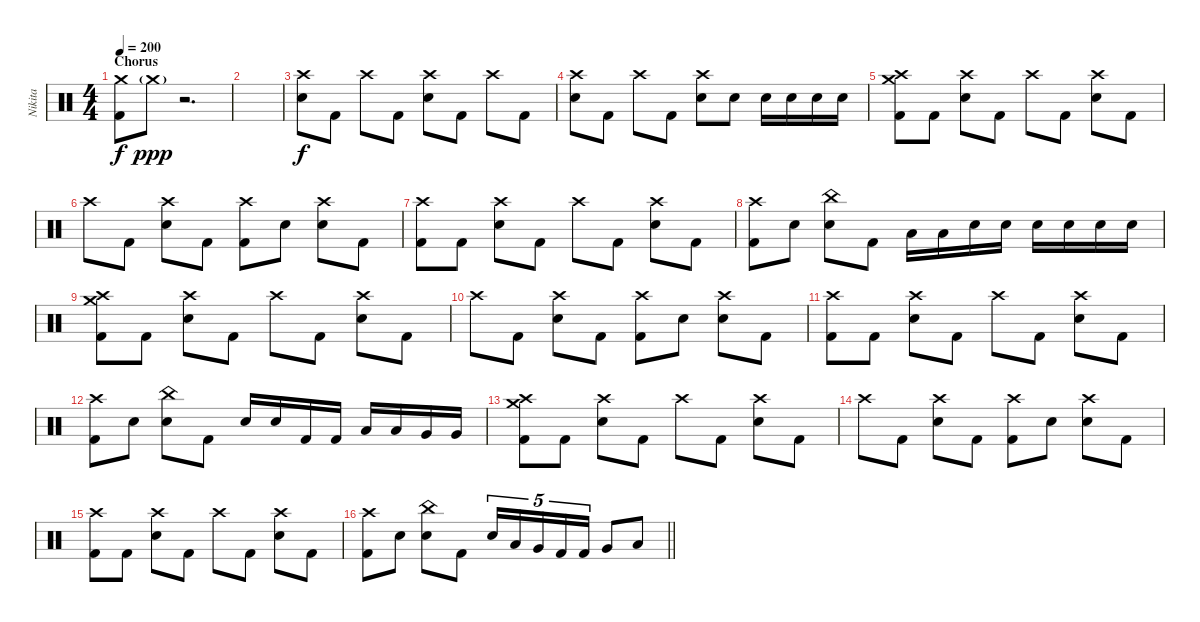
\track ("Nikita" "Nikita") {instrument percussion}
\staff {score}
\articulation defaults
\ts (4 4)
\section ("" "Chorus")
\tempo 200
\clef neutral
\ks c
("Crash medium (hit)" "Kick (hit) 2").8{dy f} "Crash medium (hit)"{g}.8{dy ppp} r.2{d} |
|
("Crash high (hit)" "Electric Snare (hit)").8{dy f} "Kick (hit) 2".8 "Crash high (hit)".8 "Kick (hit) 2".8 ("Crash high (hit)" "Electric Snare (hit)").8 "Kick (hit) 2".8 "Crash high (hit)".8 "Kick (hit) 2".8 |
("Crash high (hit)" "Electric Snare (hit)").8 "Kick (hit) 2".8 "Crash high (hit)".8 "Kick (hit) 2".8 ("Crash high (hit)" "Electric Snare (hit)").8 "Electric Snare (hit)".8 "Electric Snare (hit)".16 "Electric Snare (hit)".16 "Electric Snare (hit)".16 "Electric Snare (hit)".16 |
("Crash high (hit)" "Crash medium (hit)" "Kick (hit) 2").8 "Kick (hit) 2".8 ("Crash high (hit)" "Electric Snare (hit)").8 "Kick (hit) 2".8 "Crash high (hit)".8 "Kick (hit) 2".8 ("Crash high (hit)" "Electric Snare (hit)").8 "Kick (hit) 2".8 |
"Crash high (hit)".8 "Kick (hit) 2".8 ("Crash high (hit)" "Electric Snare (hit)").8 "Kick (hit) 2".8 ("Crash high (hit)" "Kick (hit) 2").8 "Electric Snare (hit)".8 ("Crash high (hit)" "Electric Snare (hit)").8 "Kick (hit) 2".8 |
("Crash high (hit)" "Kick (hit) 2").8 "Kick (hit) 2".8 ("Crash high (hit)" "Electric Snare (hit)").8 "Kick (hit) 2".8 "Crash high (hit)".8 "Kick (hit) 2".8 ("Crash high (hit)" "Electric Snare (hit)").8 "Kick (hit) 2".8 |
("Crash high (hit)" "Kick (hit) 2").8 "Electric Snare (hit)".8 ("China (hit)" "Electric Snare (hit)").8 "Kick (hit) 2".8 "Low Tom (hit)".16 "Low Tom (hit)".16 "Electric Snare (hit)".16 "Electric Snare (hit)".16 "Electric Snare (hit)".16 "Electric Snare (hit)".16 "Electric Snare (hit)".16 "Electric Snare (hit)".16 |
("Crash high (hit)" "Crash medium (hit)" "Kick (hit) 2").8 "Kick (hit) 2".8 ("Crash high (hit)" "Electric Snare (hit)").8 "Kick (hit) 2".8 "Crash high (hit)".8 "Kick (hit) 2".8 ("Crash high (hit)" "Electric Snare (hit)").8 "Kick (hit) 2".8 |
"Crash high (hit)".8 "Kick (hit) 2".8 ("Crash high (hit)" "Electric Snare (hit)").8 "Kick (hit) 2".8 ("Crash high (hit)" "Kick (hit) 2").8 "Electric Snare (hit)".8 ("Crash high (hit)" "Electric Snare (hit)").8 "Kick (hit) 2".8 |
("Crash high (hit)" "Kick (hit) 2").8 "Kick (hit) 2".8 ("Crash high (hit)" "Electric Snare (hit)").8 "Kick (hit) 2".8 "Crash high (hit)".8 "Kick (hit) 2".8 ("Crash high (hit)" "Electric Snare (hit)").8 "Kick (hit) 2".8 |
("Crash high (hit)" "Kick (hit) 2").8 "Electric Snare (hit)".8 ("China (hit)" "Electric Snare (hit)").8 "Kick (hit) 2".8 "Electric Snare (hit)".16 "Electric Snare (hit)".16 "Kick (hit) 2".16 "Kick (hit) 2".16 "Low Tom (hit)".16 "Low Tom (hit)".16 "Very Low Tom (hit)".16 "Very Low Tom (hit)".16 |
("Crash high (hit)" "Crash medium (hit)" "Kick (hit) 2").8 "Kick (hit) 2".8 ("Crash high (hit)" "Electric Snare (hit)").8 "Kick (hit) 2".8 "Crash high (hit)".8 "Kick (hit) 2".8 ("Crash high (hit)" "Electric Snare (hit)").8 "Kick (hit) 2".8 |
"Crash high (hit)".8 "Kick (hit) 2".8 ("Crash high (hit)" "Electric Snare (hit)").8 "Kick (hit) 2".8 ("Crash high (hit)" "Kick (hit) 2").8 "Electric Snare (hit)".8 ("Crash high (hit)" "Electric Snare (hit)").8 "Kick (hit) 2".8 |
("Crash high (hit)" "Kick (hit) 2").8 "Kick (hit) 2".8 ("Crash high (hit)" "Electric Snare (hit)").8 "Kick (hit) 2".8 "Crash high (hit)".8 "Kick (hit) 2".8 ("Crash high (hit)" "Electric Snare (hit)").8 "Kick (hit) 2".8 |
\barLineRight lightlight
("Crash high (hit)" "Kick (hit) 2").8 "Electric Snare (hit)".8 ("China (hit)" "Electric Snare (hit)").8 "Kick (hit) 2".8 "Electric Snare (hit)".16{tu (5 4)} "Low Tom (hit)".16{tu (5 4)} "Very Low Tom (hit)".16{tu (5 4)} "Kick (hit) 2".16{tu (5 4)} "Kick (hit) 2".16{tu (5 4)} "Very Low Tom (hit)".8 "Low Tom (hit)".8
